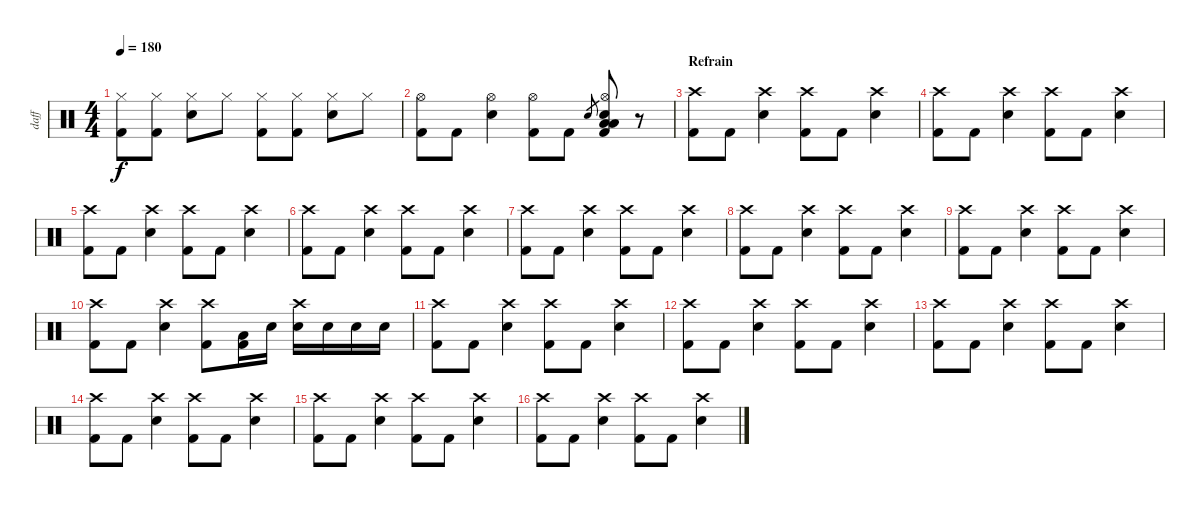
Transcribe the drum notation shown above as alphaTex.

\track ("daff" "daff") {instrument percussion}
\staff {score}
\articulation defaults
\ts (4 4)
\tempo 180
\clef neutral
\ks c
("Hi-Hat (closed)" "Kick (hit) 2").8{dy f} ("Hi-Hat (closed)" "Kick (hit) 2").8 ("Hi-Hat (closed)" "Electric Snare (hit)").8 "Hi-Hat (closed)".8 ("Hi-Hat (closed)" "Kick (hit) 2").8 ("Hi-Hat (closed)" "Kick (hit) 2").8 ("Hi-Hat (closed)" "Electric Snare (hit)").8 "Hi-Hat (closed)".8 |
("Hi-Hat (open)" "Kick (hit) 2").8 "Kick (hit) 2".8 ("Hi-Hat (open)" "Electric Snare (hit)").4 ("Hi-Hat (open)" "Kick (hit) 2").8 "Kick (hit) 2".8 "Electric Snare (hit)".8{gr} ("Hi-Hat (open)" "Electric Snare (hit)" "Low Floor Tom (hit)" "Low Tom (hit)" "Kick (hit) 2").8 r.8 |
\section ("" "Refrain")
("Crash high (hit)" "Kick (hit) 2").8 "Kick (hit) 2".8 ("Crash high (hit)" "Electric Snare (hit)").4 ("Crash high (hit)" "Kick (hit) 2").8 "Kick (hit) 2".8 ("Crash high (hit)" "Electric Snare (hit)").4 |
("Crash high (hit)" "Kick (hit) 2").8 "Kick (hit) 2".8 ("Crash high (hit)" "Electric Snare (hit)").4 ("Crash high (hit)" "Kick (hit) 2").8 "Kick (hit) 2".8 ("Crash high (hit)" "Electric Snare (hit)").4 |
("Crash high (hit)" "Kick (hit) 2").8 "Kick (hit) 2".8 ("Crash high (hit)" "Electric Snare (hit)").4 ("Crash high (hit)" "Kick (hit) 2").8 "Kick (hit) 2".8 ("Crash high (hit)" "Electric Snare (hit)").4 |
("Crash high (hit)" "Kick (hit) 2").8 "Kick (hit) 2".8 ("Crash high (hit)" "Electric Snare (hit)").4 ("Crash high (hit)" "Kick (hit) 2").8 "Kick (hit) 2".8 ("Crash high (hit)" "Electric Snare (hit)").4 |
("Crash high (hit)" "Kick (hit) 2").8 "Kick (hit) 2".8 ("Crash high (hit)" "Electric Snare (hit)").4 ("Crash high (hit)" "Kick (hit) 2").8 "Kick (hit) 2".8 ("Crash high (hit)" "Electric Snare (hit)").4 |
("Crash high (hit)" "Kick (hit) 2").8 "Kick (hit) 2".8 ("Crash high (hit)" "Electric Snare (hit)").4 ("Crash high (hit)" "Kick (hit) 2").8 "Kick (hit) 2".8 ("Crash high (hit)" "Electric Snare (hit)").4 |
("Crash high (hit)" "Kick (hit) 2").8 "Kick (hit) 2".8 ("Crash high (hit)" "Electric Snare (hit)").4 ("Crash high (hit)" "Kick (hit) 2").8 "Kick (hit) 2".8 ("Crash high (hit)" "Electric Snare (hit)").4 |
("Crash high (hit)" "Kick (hit) 2").8 "Kick (hit) 2".8 ("Crash high (hit)" "Electric Snare (hit)").4 ("Crash high (hit)" "Kick (hit) 2").8 ("Low Floor Tom (hit)" "Kick (hit) 2").16 "Electric Snare (hit)".16 ("Crash high (hit)" "Electric Snare (hit)").16 "Electric Snare (hit)".16 "Electric Snare (hit)".16 "Electric Snare (hit)".16 |
("Crash high (hit)" "Kick (hit) 2").8 "Kick (hit) 2".8 ("Crash high (hit)" "Electric Snare (hit)").4 ("Crash high (hit)" "Kick (hit) 2").8 "Kick (hit) 2".8 ("Crash high (hit)" "Electric Snare (hit)").4 |
("Crash high (hit)" "Kick (hit) 2").8 "Kick (hit) 2".8 ("Crash high (hit)" "Electric Snare (hit)").4 ("Crash high (hit)" "Kick (hit) 2").8 "Kick (hit) 2".8 ("Crash high (hit)" "Electric Snare (hit)").4 |
("Crash high (hit)" "Kick (hit) 2").8 "Kick (hit) 2".8 ("Crash high (hit)" "Electric Snare (hit)").4 ("Crash high (hit)" "Kick (hit) 2").8 "Kick (hit) 2".8 ("Crash high (hit)" "Electric Snare (hit)").4 |
("Crash high (hit)" "Kick (hit) 2").8 "Kick (hit) 2".8 ("Crash high (hit)" "Electric Snare (hit)").4 ("Crash high (hit)" "Kick (hit) 2").8 "Kick (hit) 2".8 ("Crash high (hit)" "Electric Snare (hit)").4 |
("Crash high (hit)" "Kick (hit) 2").8 "Kick (hit) 2".8 ("Crash high (hit)" "Electric Snare (hit)").4 ("Crash high (hit)" "Kick (hit) 2").8 "Kick (hit) 2".8 ("Crash high (hit)" "Electric Snare (hit)").4 |
("Crash high (hit)" "Kick (hit) 2").8 "Kick (hit) 2".8 ("Crash high (hit)" "Electric Snare (hit)").4 ("Crash high (hit)" "Kick (hit) 2").8 "Kick (hit) 2".8 ("Crash high (hit)" "Electric Snare (hit)").4
